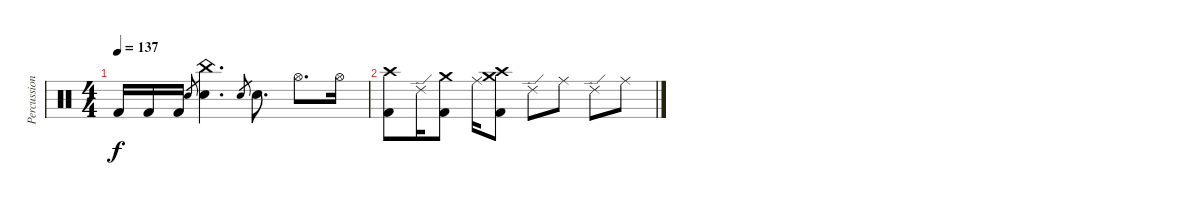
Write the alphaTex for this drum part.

\track ("Percussion" "Percussion") {instrument percussion}
\staff {score}
\articulation defaults
\ts (4 4)
\tempo 137
\clef neutral
\ks c "Kick (hit) 2".16{dy f} "Kick (hit) 2".16 "Kick (hit) 2".16 "Electric Snare (hit)".8{gr}
("China (hit)" "Electric Snare (hit)").4{d} "Electric Snare (hit)".8{gr} "Electric Snare (hit)".8{d} "Hi-Hat (open)".8{d} "Hi-Hat (open)".16 |
("Crash high (hit)" "Kick (hit) 2").8 "Ride (edge) 2".16 ("Crash medium (hit)" "Kick (hit) 2").8 "Ride (middle)".16 ("Crash high (hit)" "Crash medium (hit)" "Kick (hit) 2").8 "Ride (edge) 2".8 "Ride (middle)".8 "Ride (edge) 2".8 "Ride (middle)".8
